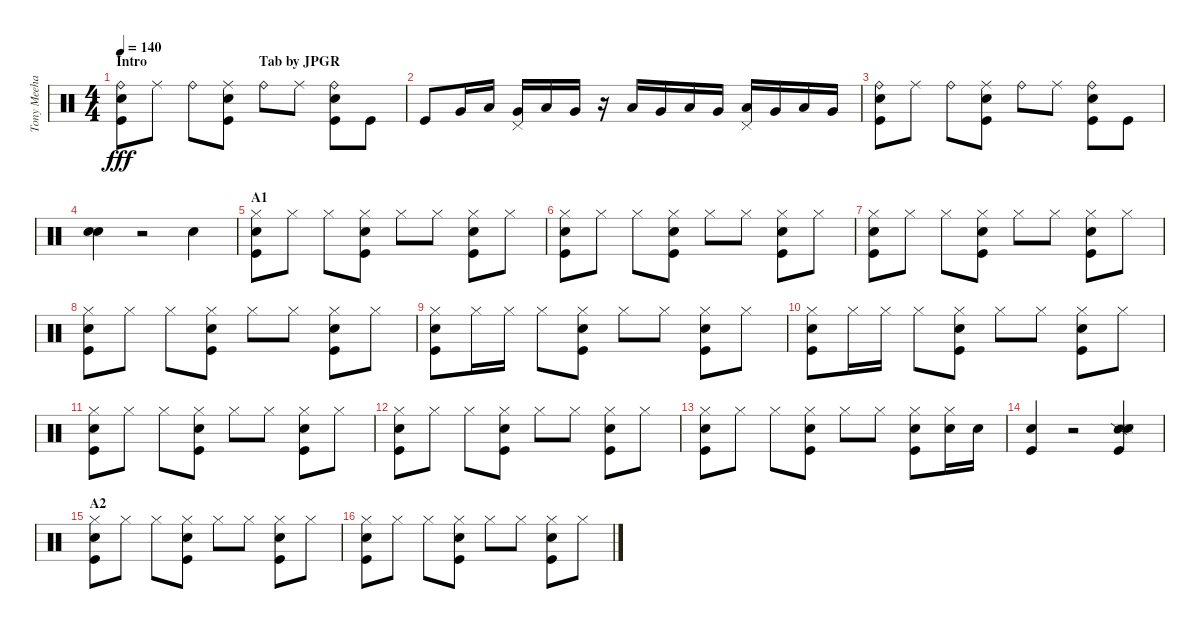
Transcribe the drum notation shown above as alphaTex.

\track ("Tony Meehan" "Tony Meeha") {instrument percussion}
\staff {score}
\articulation defaults
\ts (4 4)
\section ("" "Intro                                Tab by JPGR")
\tempo 140
\clef neutral
\ks c
("Ride (bell)" "Electric Snare (hit)" "Kick (hit)").8{dy fff} "Ride (middle)".8 "Ride (bell)".8 ("Ride (middle)" "Electric Snare (hit)" "Kick (hit)").8 "Ride (bell)".8 "Ride (middle)".8 ("Ride (bell)" "Electric Snare (hit)" "Kick (hit)").8 "Kick (hit)".8 |
"Kick (hit)".8 "Very Low Tom (hit)".16 "Low Floor Tom (hit)".16 ("Pedal Hi-Hat (hit)" "Very Low Tom (hit)").16 "Low Floor Tom (hit)".16 "Very Low Tom (hit)".16 r.16 "Low Floor Tom (hit)".16 "Very Low Tom (hit)".16 "Low Floor Tom (hit)".16 "Very Low Tom (hit)".16 ("Pedal Hi-Hat (hit)" "Low Floor Tom (hit)").16 "Very Low Tom (hit)".16 "Low Floor Tom (hit)".16 "Very Low Tom (hit)".16 |
("Ride (bell)" "Electric Snare (hit)" "Kick (hit)").8 "Ride (middle)".8 "Ride (bell)".8 ("Ride (middle)" "Electric Snare (hit)" "Kick (hit)").8 "Ride (bell)".8 "Ride (middle)".8 ("Ride (bell)" "Electric Snare (hit)" "Kick (hit)").8 "Kick (hit)".8 |
("Electric Snare (hit)" "Snare (hit) 2").4 r.2 "Electric Snare (hit)".4 |
\section ("" "A1")
("Hi-Hat (closed)" "Electric Snare (hit)" "Kick (hit)").8 "Hi-Hat (closed)".8 "Hi-Hat (closed)".8 ("Hi-Hat (closed)" "Electric Snare (hit)" "Kick (hit)").8 "Hi-Hat (closed)".8 "Hi-Hat (closed)".8 ("Hi-Hat (closed)" "Electric Snare (hit)" "Kick (hit)").8 "Hi-Hat (closed)".8 |
("Hi-Hat (closed)" "Electric Snare (hit)" "Kick (hit)").8 "Hi-Hat (closed)".8 "Hi-Hat (closed)".8 ("Hi-Hat (closed)" "Electric Snare (hit)" "Kick (hit)").8 "Hi-Hat (closed)".8 "Hi-Hat (closed)".8 ("Hi-Hat (closed)" "Electric Snare (hit)" "Kick (hit)").8 "Hi-Hat (closed)".8 |
("Hi-Hat (closed)" "Electric Snare (hit)" "Kick (hit)").8 "Hi-Hat (closed)".8 "Hi-Hat (closed)".8 ("Hi-Hat (closed)" "Electric Snare (hit)" "Kick (hit)").8 "Hi-Hat (closed)".8 "Hi-Hat (closed)".8 ("Hi-Hat (closed)" "Electric Snare (hit)" "Kick (hit)").8 "Hi-Hat (closed)".8 |
("Hi-Hat (closed)" "Electric Snare (hit)" "Kick (hit)").8 "Hi-Hat (closed)".8 "Hi-Hat (closed)".8 ("Hi-Hat (closed)" "Electric Snare (hit)" "Kick (hit)").8 "Hi-Hat (closed)".8 "Hi-Hat (closed)".8 ("Hi-Hat (closed)" "Electric Snare (hit)" "Kick (hit)").8 "Hi-Hat (closed)".8 |
("Hi-Hat (closed)" "Electric Snare (hit)" "Kick (hit)").8 "Hi-Hat (closed)".16 "Hi-Hat (closed)".16 "Hi-Hat (closed)".8 ("Hi-Hat (closed)" "Electric Snare (hit)" "Kick (hit)").8 "Hi-Hat (closed)".8 "Hi-Hat (closed)".8 ("Hi-Hat (closed)" "Electric Snare (hit)" "Kick (hit)").8 "Hi-Hat (closed)".8 |
("Hi-Hat (closed)" "Electric Snare (hit)" "Kick (hit)").8 "Hi-Hat (closed)".16 "Hi-Hat (closed)".16 "Hi-Hat (closed)".8 ("Hi-Hat (closed)" "Electric Snare (hit)" "Kick (hit)").8 "Hi-Hat (closed)".8 "Hi-Hat (closed)".8 ("Hi-Hat (closed)" "Electric Snare (hit)" "Kick (hit)").8 "Hi-Hat (closed)".8 |
("Hi-Hat (closed)" "Electric Snare (hit)" "Kick (hit)").8 "Hi-Hat (closed)".8 "Hi-Hat (closed)".8 ("Hi-Hat (closed)" "Electric Snare (hit)" "Kick (hit)").8 "Hi-Hat (closed)".8 "Hi-Hat (closed)".8 ("Hi-Hat (closed)" "Electric Snare (hit)" "Kick (hit)").8 "Hi-Hat (closed)".8 |
("Hi-Hat (closed)" "Electric Snare (hit)" "Kick (hit)").8 "Hi-Hat (closed)".8 "Hi-Hat (closed)".8 ("Hi-Hat (closed)" "Electric Snare (hit)" "Kick (hit)").8 "Hi-Hat (closed)".8 "Hi-Hat (closed)".8 ("Hi-Hat (closed)" "Electric Snare (hit)" "Kick (hit)").8 "Hi-Hat (closed)".8 |
("Hi-Hat (closed)" "Electric Snare (hit)" "Kick (hit)").8 "Hi-Hat (closed)".8 "Hi-Hat (closed)".8 ("Hi-Hat (closed)" "Electric Snare (hit)" "Kick (hit)").8 "Hi-Hat (closed)".8 "Hi-Hat (closed)".8 ("Hi-Hat (closed)" "Electric Snare (hit)" "Kick (hit)").8 ("Hi-Hat (closed)" "Electric Snare (hit)").16 "Electric Snare (hit)".16 |
("Electric Snare (hit)" "Kick (hit)").4 r.2 ("Snare (side stick) 2" "Snare (side stick) 3" "Snare (hit) 2" "Kick (hit)").4 |
\section ("" "A2")
("Hi-Hat (closed)" "Electric Snare (hit)" "Kick (hit)").8 "Hi-Hat (closed)".8 "Hi-Hat (closed)".8 ("Hi-Hat (closed)" "Electric Snare (hit)" "Kick (hit)").8 "Hi-Hat (closed)".8 "Hi-Hat (closed)".8 ("Hi-Hat (closed)" "Electric Snare (hit)" "Kick (hit)").8 "Hi-Hat (closed)".8 |
("Hi-Hat (closed)" "Electric Snare (hit)" "Kick (hit)").8 "Hi-Hat (closed)".8 "Hi-Hat (closed)".8 ("Hi-Hat (closed)" "Electric Snare (hit)" "Kick (hit)").8 "Hi-Hat (closed)".8 "Hi-Hat (closed)".8 ("Hi-Hat (closed)" "Electric Snare (hit)" "Kick (hit)").8 "Hi-Hat (closed)".8
